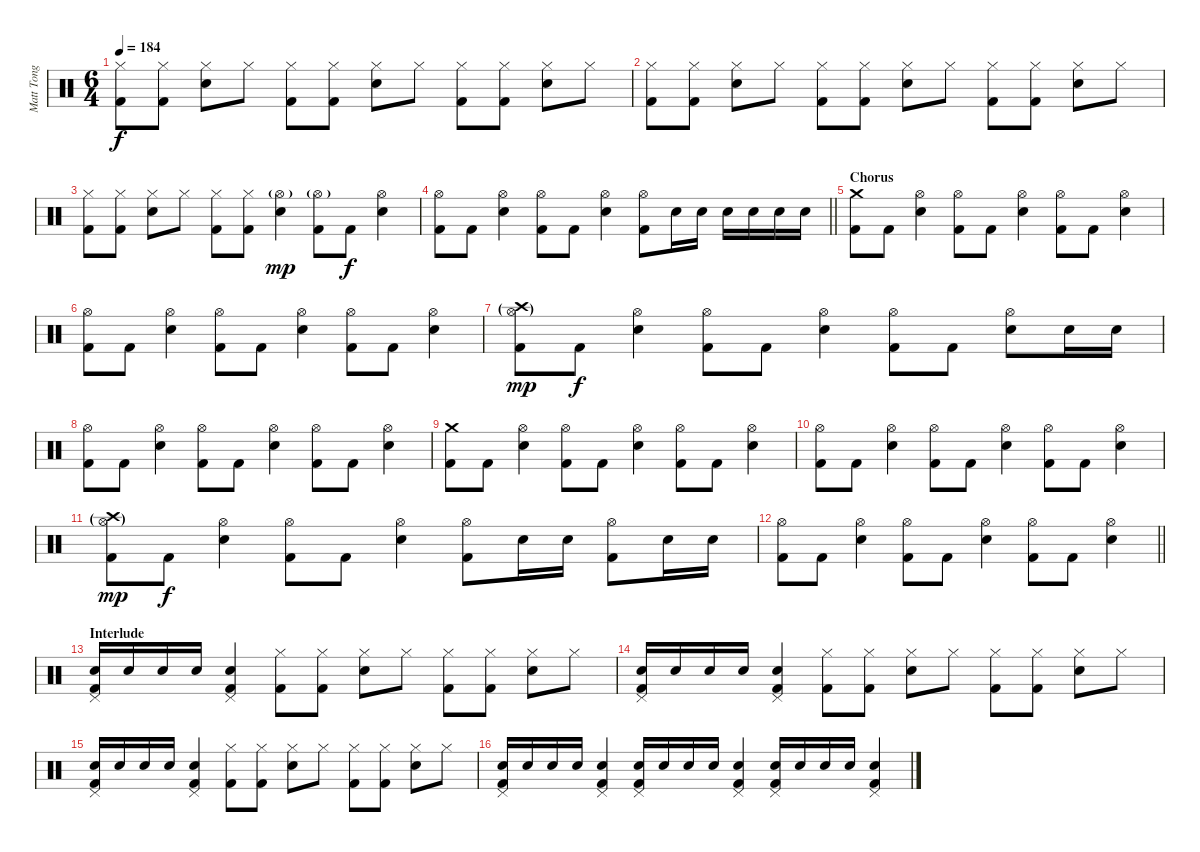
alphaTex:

\track ("Matt Tong" "Matt Tong") {instrument percussion}
\staff {score}
\articulation defaults
\ts (6 4)
\tempo 184
\clef neutral
\ks c
("Hi-Hat (closed)" "Kick (hit) 2").8{dy f} ("Hi-Hat (closed)" "Kick (hit) 2").8 ("Hi-Hat (closed)" "Electric Snare (hit)").8 "Hi-Hat (closed)".8 ("Hi-Hat (closed)" "Kick (hit) 2").8 ("Hi-Hat (closed)" "Kick (hit) 2").8 ("Hi-Hat (closed)" "Electric Snare (hit)").8 "Hi-Hat (closed)".8 ("Hi-Hat (closed)" "Kick (hit) 2").8 ("Hi-Hat (closed)" "Kick (hit) 2").8 ("Hi-Hat (closed)" "Electric Snare (hit)").8 "Hi-Hat (closed)".8 |
("Hi-Hat (closed)" "Kick (hit) 2").8 ("Hi-Hat (closed)" "Kick (hit) 2").8 ("Hi-Hat (closed)" "Electric Snare (hit)").8 "Hi-Hat (closed)".8 ("Hi-Hat (closed)" "Kick (hit) 2").8 ("Hi-Hat (closed)" "Kick (hit) 2").8 ("Hi-Hat (closed)" "Electric Snare (hit)").8 "Hi-Hat (closed)".8 ("Hi-Hat (closed)" "Kick (hit) 2").8 ("Hi-Hat (closed)" "Kick (hit) 2").8 ("Hi-Hat (closed)" "Electric Snare (hit)").8 "Hi-Hat (closed)".8 |
("Hi-Hat (closed)" "Kick (hit) 2").8 ("Hi-Hat (closed)" "Kick (hit) 2").8 ("Hi-Hat (closed)" "Electric Snare (hit)").8 "Hi-Hat (closed)".8 ("Hi-Hat (closed)" "Kick (hit) 2").8 ("Hi-Hat (closed)" "Kick (hit) 2").8 ("Hi-Hat (open)"{g} "Electric Snare (hit)").4{dy mp} ("Hi-Hat (open)"{g} "Kick (hit) 2").8 "Kick (hit) 2".8{dy f} ("Hi-Hat (open)" "Electric Snare (hit)").4 |
\barLineRight lightlight
("Hi-Hat (open)" "Kick (hit) 2").8 "Kick (hit) 2".8 ("Hi-Hat (open)" "Electric Snare (hit)").4 ("Hi-Hat (open)" "Kick (hit) 2").8 "Kick (hit) 2".8 ("Hi-Hat (open)" "Electric Snare (hit)").4 ("Hi-Hat (open)" "Kick (hit) 2").8 "Electric Snare (hit)".16 "Electric Snare (hit)".16 "Electric Snare (hit)".16 "Electric Snare (hit)".16 "Electric Snare (hit)".16 "Electric Snare (hit)".16 |
\section ("" "Chorus")
("Crash medium (hit)" "Kick (hit) 2").8 "Kick (hit) 2".8 ("Hi-Hat (open)" "Electric Snare (hit)").4 ("Hi-Hat (open)" "Kick (hit) 2").8 "Kick (hit) 2".8 ("Hi-Hat (open)" "Electric Snare (hit)").4 ("Hi-Hat (open)" "Kick (hit) 2").8 "Kick (hit) 2".8 ("Hi-Hat (open)" "Electric Snare (hit)").4 |
("Hi-Hat (open)" "Kick (hit) 2").8 "Kick (hit) 2".8 ("Hi-Hat (open)" "Electric Snare (hit)").4 ("Hi-Hat (open)" "Kick (hit) 2").8 "Kick (hit) 2".8 ("Hi-Hat (open)" "Electric Snare (hit)").4 ("Hi-Hat (open)" "Kick (hit) 2").8 "Kick (hit) 2".8 ("Hi-Hat (open)" "Electric Snare (hit)").4 |
("Crash high (hit)"{g} "Hi-Hat (open)"{g} "Kick (hit) 2").8{dy mp} "Kick (hit) 2".8{dy f} ("Hi-Hat (open)" "Electric Snare (hit)").4 ("Hi-Hat (open)" "Kick (hit) 2").8 "Kick (hit) 2".8 ("Hi-Hat (open)" "Electric Snare (hit)").4 ("Hi-Hat (open)" "Kick (hit) 2").8 "Kick (hit) 2".8 ("Hi-Hat (open)" "Electric Snare (hit)").8 "Electric Snare (hit)".16 "Electric Snare (hit)".16 |
("Hi-Hat (open)" "Kick (hit) 2").8 "Kick (hit) 2".8 ("Hi-Hat (open)" "Electric Snare (hit)").4 ("Hi-Hat (open)" "Kick (hit) 2").8 "Kick (hit) 2".8 ("Hi-Hat (open)" "Electric Snare (hit)").4 ("Hi-Hat (open)" "Kick (hit) 2").8 "Kick (hit) 2".8 ("Hi-Hat (open)" "Electric Snare (hit)").4 |
("Crash medium (hit)" "Kick (hit) 2").8 "Kick (hit) 2".8 ("Hi-Hat (open)" "Electric Snare (hit)").4 ("Hi-Hat (open)" "Kick (hit) 2").8 "Kick (hit) 2".8 ("Hi-Hat (open)" "Electric Snare (hit)").4 ("Hi-Hat (open)" "Kick (hit) 2").8 "Kick (hit) 2".8 ("Hi-Hat (open)" "Electric Snare (hit)").4 |
("Hi-Hat (open)" "Kick (hit) 2").8 "Kick (hit) 2".8 ("Hi-Hat (open)" "Electric Snare (hit)").4 ("Hi-Hat (open)" "Kick (hit) 2").8 "Kick (hit) 2".8 ("Hi-Hat (open)" "Electric Snare (hit)").4 ("Hi-Hat (open)" "Kick (hit) 2").8 "Kick (hit) 2".8 ("Hi-Hat (open)" "Electric Snare (hit)").4 |
("Crash high (hit)"{g} "Hi-Hat (open)"{g} "Kick (hit) 2").8{dy mp} "Kick (hit) 2".8{dy f} ("Hi-Hat (open)" "Electric Snare (hit)").4 ("Hi-Hat (open)" "Kick (hit) 2").8 "Kick (hit) 2".8 ("Hi-Hat (open)" "Electric Snare (hit)").4 ("Hi-Hat (open)" "Kick (hit) 2").8 "Electric Snare (hit)".16 "Electric Snare (hit)".16 ("Hi-Hat (open)" "Kick (hit) 2").8 "Electric Snare (hit)".16 "Electric Snare (hit)".16 |
\barLineRight lightlight
("Hi-Hat (open)" "Kick (hit) 2").8 "Kick (hit) 2".8 ("Hi-Hat (open)" "Electric Snare (hit)").4 ("Hi-Hat (open)" "Kick (hit) 2").8 "Kick (hit) 2".8 ("Hi-Hat (open)" "Electric Snare (hit)").4 ("Hi-Hat (open)" "Kick (hit) 2").8 "Kick (hit) 2".8 ("Hi-Hat (open)" "Electric Snare (hit)").4 |
\section ("" "Interlude")
("Pedal Hi-Hat (hit)" "Electric Snare (hit)" "Kick (hit) 2").16 "Electric Snare (hit)".16 "Electric Snare (hit)".16 "Electric Snare (hit)".16 ("Pedal Hi-Hat (hit)" "Electric Snare (hit)" "Kick (hit) 2").4 ("Hi-Hat (closed)" "Kick (hit) 2").8 ("Hi-Hat (closed)" "Kick (hit) 2").8 ("Hi-Hat (closed)" "Electric Snare (hit)").8 "Hi-Hat (closed)".8 ("Hi-Hat (closed)" "Kick (hit) 2").8 ("Hi-Hat (closed)" "Kick (hit) 2").8 ("Hi-Hat (closed)" "Electric Snare (hit)").8 "Hi-Hat (closed)".8 |
("Pedal Hi-Hat (hit)" "Electric Snare (hit)" "Kick (hit) 2").16 "Electric Snare (hit)".16 "Electric Snare (hit)".16 "Electric Snare (hit)".16 ("Pedal Hi-Hat (hit)" "Electric Snare (hit)" "Kick (hit) 2").4 ("Hi-Hat (closed)" "Kick (hit) 2").8 ("Hi-Hat (closed)" "Kick (hit) 2").8 ("Hi-Hat (closed)" "Electric Snare (hit)").8 "Hi-Hat (closed)".8 ("Hi-Hat (closed)" "Kick (hit) 2").8 ("Hi-Hat (closed)" "Kick (hit) 2").8 ("Hi-Hat (closed)" "Electric Snare (hit)").8 "Hi-Hat (closed)".8 |
("Pedal Hi-Hat (hit)" "Electric Snare (hit)" "Kick (hit) 2").16 "Electric Snare (hit)".16 "Electric Snare (hit)".16 "Electric Snare (hit)".16 ("Pedal Hi-Hat (hit)" "Electric Snare (hit)" "Kick (hit) 2").4 ("Hi-Hat (closed)" "Kick (hit) 2").8 ("Hi-Hat (closed)" "Kick (hit) 2").8 ("Hi-Hat (closed)" "Electric Snare (hit)").8 "Hi-Hat (closed)".8 ("Hi-Hat (closed)" "Kick (hit) 2").8 ("Hi-Hat (closed)" "Kick (hit) 2").8 ("Hi-Hat (closed)" "Electric Snare (hit)").8 "Hi-Hat (closed)".8 |
("Pedal Hi-Hat (hit)" "Electric Snare (hit)" "Kick (hit) 2").16 "Electric Snare (hit)".16 "Electric Snare (hit)".16 "Electric Snare (hit)".16 ("Pedal Hi-Hat (hit)" "Electric Snare (hit)" "Kick (hit) 2").4 ("Pedal Hi-Hat (hit)" "Electric Snare (hit)" "Kick (hit) 2").16 "Electric Snare (hit)".16 "Electric Snare (hit)".16 "Electric Snare (hit)".16 ("Pedal Hi-Hat (hit)" "Electric Snare (hit)" "Kick (hit) 2").4 ("Pedal Hi-Hat (hit)" "Electric Snare (hit)" "Kick (hit) 2").16 "Electric Snare (hit)".16 "Electric Snare (hit)".16 "Electric Snare (hit)".16 ("Pedal Hi-Hat (hit)" "Electric Snare (hit)" "Kick (hit) 2").4
